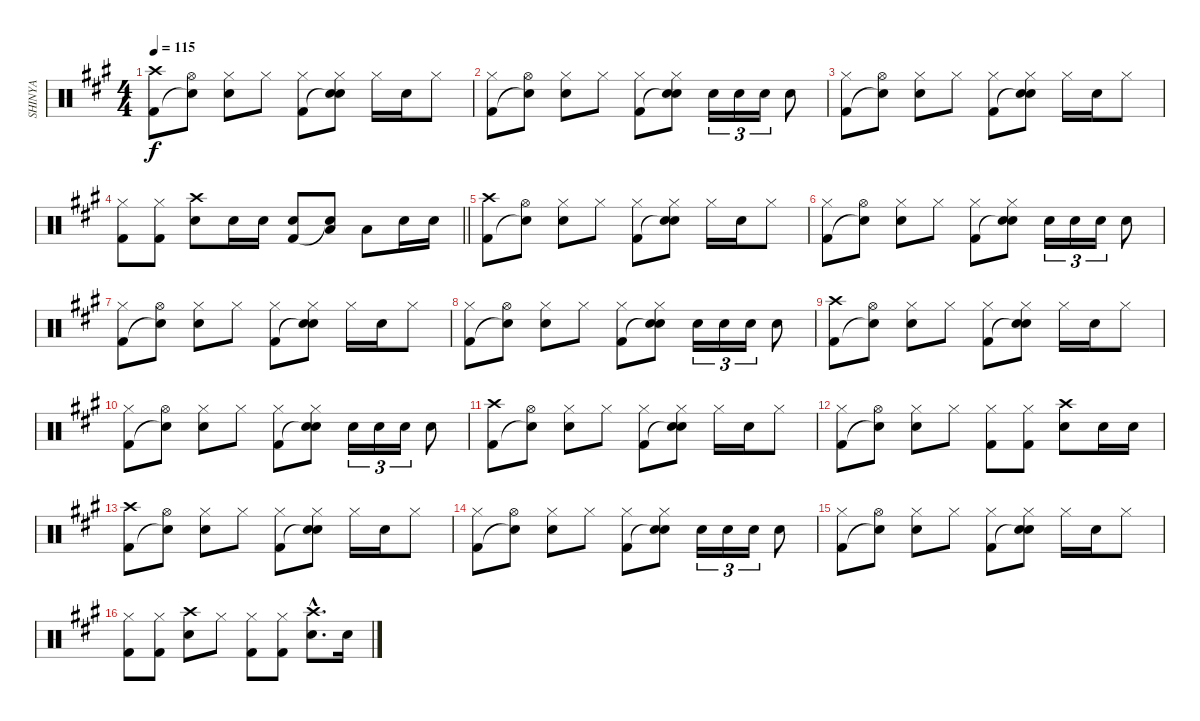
\track ("SHINYA" "SHINYA") {instrument percussion}
\staff {score}
\articulation defaults
\ts (4 4)
\tempo 115
\clef neutral
\ks a
("Crash high (hit)" "Kick (hit) 2").8{dy f} ("Hi-Hat (open)" "Snare (hit)"{t}).8 ("Hi-Hat (closed)" "Electric Snare (hit)").8 "Hi-Hat (closed)".8 ("Hi-Hat (closed)" "Kick (hit) 2").8 ("Hi-Hat (closed)" "Snare (hit)"{t} "Electric Snare (hit)").8 "Hi-Hat (closed)".16 "Electric Snare (hit)".16 "Hi-Hat (closed)".8 |
("Hi-Hat (closed)" "Kick (hit) 2").8 ("Hi-Hat (open)" "Snare (hit)"{t}).8 ("Hi-Hat (closed)" "Electric Snare (hit)").8 "Hi-Hat (closed)".8 ("Hi-Hat (closed)" "Kick (hit) 2").8 ("Hi-Hat (closed)" "Snare (hit)"{t} "Electric Snare (hit)").8 "Electric Snare (hit)".16{tu (3 2)} "Electric Snare (hit)".16{tu (3 2)} "Electric Snare (hit)".16{tu (3 2)} "Electric Snare (hit)".8 |
("Hi-Hat (closed)" "Kick (hit) 2").8 ("Hi-Hat (open)" "Snare (hit)"{t}).8 ("Hi-Hat (closed)" "Electric Snare (hit)").8 "Hi-Hat (closed)".8 ("Hi-Hat (closed)" "Kick (hit) 2").8 ("Hi-Hat (closed)" "Snare (hit)"{t} "Electric Snare (hit)").8 "Hi-Hat (closed)".16 "Electric Snare (hit)".16 "Hi-Hat (closed)".8 |
\barLineRight lightlight
("Hi-Hat (closed)" "Kick (hit) 2").8 ("Hi-Hat (closed)" "Kick (hit) 2").8 ("Crash high (hit)" "Electric Snare (hit)").8 "Electric Snare (hit)".16 "Electric Snare (hit)".16 ("Electric Snare (hit)" "Kick (hit) 2").8 ("Low Tom (hit)" "Snare (hit)"{t}).8 "Low Tom (hit)".8 "Electric Snare (hit)".16 "Electric Snare (hit)".16 |
("Crash high (hit)" "Kick (hit) 2").8 ("Hi-Hat (open)" "Snare (hit)"{t}).8 ("Hi-Hat (closed)" "Electric Snare (hit)").8 "Hi-Hat (closed)".8 ("Hi-Hat (closed)" "Kick (hit) 2").8 ("Hi-Hat (closed)" "Snare (hit)"{t} "Electric Snare (hit)").8 "Hi-Hat (closed)".16 "Electric Snare (hit)".16 "Hi-Hat (closed)".8 |
("Hi-Hat (closed)" "Kick (hit) 2").8 ("Hi-Hat (open)" "Snare (hit)"{t}).8 ("Hi-Hat (closed)" "Electric Snare (hit)").8 "Hi-Hat (closed)".8 ("Hi-Hat (closed)" "Kick (hit) 2").8 ("Hi-Hat (closed)" "Snare (hit)"{t} "Electric Snare (hit)").8 "Electric Snare (hit)".16{tu (3 2)} "Electric Snare (hit)".16{tu (3 2)} "Electric Snare (hit)".16{tu (3 2)} "Electric Snare (hit)".8 |
("Hi-Hat (closed)" "Kick (hit) 2").8 ("Hi-Hat (open)" "Snare (hit)"{t}).8 ("Hi-Hat (closed)" "Electric Snare (hit)").8 "Hi-Hat (closed)".8 ("Hi-Hat (closed)" "Kick (hit) 2").8 ("Hi-Hat (closed)" "Snare (hit)"{t} "Electric Snare (hit)").8 "Hi-Hat (closed)".16 "Electric Snare (hit)".16 "Hi-Hat (closed)".8 |
("Hi-Hat (closed)" "Kick (hit) 2").8 ("Hi-Hat (open)" "Snare (hit)"{t}).8 ("Hi-Hat (closed)" "Electric Snare (hit)").8 "Hi-Hat (closed)".8 ("Hi-Hat (closed)" "Kick (hit) 2").8 ("Hi-Hat (closed)" "Snare (hit)"{t} "Electric Snare (hit)").8 "Electric Snare (hit)".16{tu (3 2)} "Electric Snare (hit)".16{tu (3 2)} "Electric Snare (hit)".16{tu (3 2)} "Electric Snare (hit)".8 |
("Crash high (hit)" "Kick (hit) 2").8 ("Hi-Hat (open)" "Snare (hit)"{t}).8 ("Hi-Hat (closed)" "Electric Snare (hit)").8 "Hi-Hat (closed)".8 ("Hi-Hat (closed)" "Kick (hit) 2").8 ("Hi-Hat (closed)" "Snare (hit)"{t} "Electric Snare (hit)").8 "Hi-Hat (closed)".16 "Electric Snare (hit)".16 "Hi-Hat (closed)".8 |
("Hi-Hat (closed)" "Kick (hit) 2").8 ("Hi-Hat (open)" "Snare (hit)"{t}).8 ("Hi-Hat (closed)" "Electric Snare (hit)").8 "Hi-Hat (closed)".8 ("Hi-Hat (closed)" "Kick (hit) 2").8 ("Hi-Hat (closed)" "Snare (hit)"{t} "Electric Snare (hit)").8 "Electric Snare (hit)".16{tu (3 2)} "Electric Snare (hit)".16{tu (3 2)} "Electric Snare (hit)".16{tu (3 2)} "Electric Snare (hit)".8 |
("Crash high (hit)" "Kick (hit) 2").8 ("Hi-Hat (open)" "Snare (hit)"{t}).8 ("Hi-Hat (closed)" "Electric Snare (hit)").8 "Hi-Hat (closed)".8 ("Hi-Hat (closed)" "Kick (hit) 2").8 ("Hi-Hat (closed)" "Snare (hit)"{t} "Electric Snare (hit)").8 "Hi-Hat (closed)".16 "Electric Snare (hit)".16 "Hi-Hat (closed)".8 |
("Hi-Hat (closed)" "Kick (hit) 2").8 ("Hi-Hat (open)" "Snare (hit)"{t}).8 ("Hi-Hat (closed)" "Electric Snare (hit)").8 "Hi-Hat (closed)".8 ("Hi-Hat (closed)" "Kick (hit) 2").8 ("Hi-Hat (closed)" "Kick (hit) 2").8 ("Crash high (hit)" "Electric Snare (hit)").8 "Electric Snare (hit)".16 "Electric Snare (hit)".16 |
("Crash high (hit)" "Kick (hit) 2").8 ("Hi-Hat (open)" "Snare (hit)"{t}).8 ("Hi-Hat (closed)" "Electric Snare (hit)").8 "Hi-Hat (closed)".8 ("Hi-Hat (closed)" "Kick (hit) 2").8 ("Hi-Hat (closed)" "Snare (hit)"{t} "Electric Snare (hit)").8 "Hi-Hat (closed)".16 "Electric Snare (hit)".16 "Hi-Hat (closed)".8 |
("Hi-Hat (closed)" "Kick (hit) 2").8 ("Hi-Hat (open)" "Snare (hit)"{t}).8 ("Hi-Hat (closed)" "Electric Snare (hit)").8 "Hi-Hat (closed)".8 ("Hi-Hat (closed)" "Kick (hit) 2").8 ("Hi-Hat (closed)" "Snare (hit)"{t} "Electric Snare (hit)").8 "Electric Snare (hit)".16{tu (3 2)} "Electric Snare (hit)".16{tu (3 2)} "Electric Snare (hit)".16{tu (3 2)} "Electric Snare (hit)".8 |
("Hi-Hat (closed)" "Kick (hit) 2").8 ("Hi-Hat (open)" "Snare (hit)"{t}).8 ("Hi-Hat (closed)" "Electric Snare (hit)").8 "Hi-Hat (closed)".8 ("Hi-Hat (closed)" "Kick (hit) 2").8 ("Hi-Hat (closed)" "Snare (hit)"{t} "Electric Snare (hit)").8 "Hi-Hat (closed)".16 "Electric Snare (hit)".16 "Hi-Hat (closed)".8 |
("Hi-Hat (closed)" "Kick (hit) 2").8 ("Hi-Hat (closed)" "Kick (hit) 2").8 ("Crash high (hit)" "Electric Snare (hit)").8 "Hi-Hat (closed)".8 ("Hi-Hat (closed)" "Kick (hit) 2").8 ("Hi-Hat (closed)" "Kick (hit) 2").8 ("Crash high (hit)"{hac} "Electric Snare (hit)"{hac}).8{d} "Electric Snare (hit)".16
